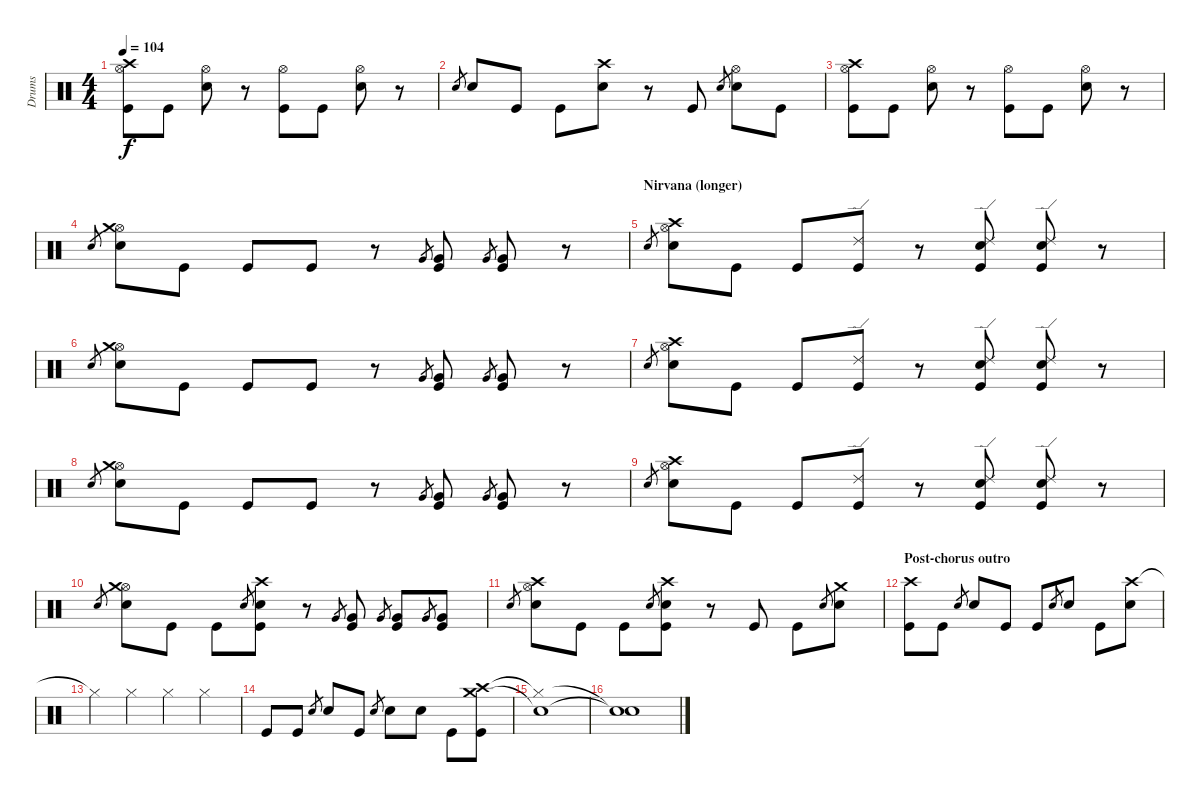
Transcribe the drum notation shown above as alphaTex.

\track ("Drums" "Drums") {instrument percussion}
\staff {score}
\articulation defaults
\ts (4 4)
\tempo 104
\clef neutral
\ks c
("Hi-Hat (open)" "Crash high (hit)" "Kick (hit)").8{dy f} "Kick (hit)".8 ("Hi-Hat (open)" "Snare (hit) 2").8 r.8 ("Hi-Hat (open)" "Kick (hit)").8 "Kick (hit)".8 ("Hi-Hat (open)" "Snare (hit) 2").8 r.8 |
"Snare (hit) 2".8{gr} "Snare (hit) 2".8 "Kick (hit)".8 "Kick (hit)".8 ("Crash high (hit)" "Snare (hit) 2").8 r.8 "Kick (hit)".8 "Snare (hit) 2".8{gr} ("Hi-Hat (open)" "Snare (hit) 2").8 "Kick (hit)".8 |
("Hi-Hat (open)" "Crash high (hit)" "Kick (hit)").8 "Kick (hit)".8 ("Hi-Hat (open)" "Snare (hit) 2").8 r.8 ("Hi-Hat (open)" "Kick (hit)").8 "Kick (hit)".8 ("Hi-Hat (open)" "Snare (hit) 2").8 r.8 |
"Snare (hit) 2".8{gr} ("Hi-Hat (open)" "Crash medium (hit)" "Snare (hit) 2").8 "Kick (hit)".8 "Kick (hit)".8 "Kick (hit)".8 r.8 "Very Low Tom (hit)".8{gr} ("Very Low Tom (hit)" "Kick (hit)").8 "Very Low Tom (hit)".8{gr} ("Very Low Tom (hit)" "Kick (hit)").8 r.8 |
\section ("" "Nirvana (longer)")
"Snare (hit) 2".8{gr} ("Hi-Hat (open)" "Crash high (hit)" "Snare (hit) 2").8 "Kick (hit)".8 "Kick (hit)".8 ("Ride (edge) 2" "Kick (hit)").8 r.8 ("Ride (edge) 2" "Snare (hit) 2" "Kick (hit)").8 ("Ride (edge) 2" "Snare (hit) 2" "Kick (hit)").8 r.8 |
"Snare (hit) 2".8{gr} ("Hi-Hat (open)" "Crash medium (hit)" "Snare (hit) 2").8 "Kick (hit)".8 "Kick (hit)".8 "Kick (hit)".8 r.8 "Very Low Tom (hit)".8{gr} ("Very Low Tom (hit)" "Kick (hit)").8 "Very Low Tom (hit)".8{gr} ("Very Low Tom (hit)" "Kick (hit)").8 r.8 |
"Snare (hit) 2".8{gr} ("Hi-Hat (open)" "Crash high (hit)" "Snare (hit) 2").8 "Kick (hit)".8 "Kick (hit)".8 ("Ride (edge) 2" "Kick (hit)").8 r.8 ("Ride (edge) 2" "Snare (hit) 2" "Kick (hit)").8 ("Ride (edge) 2" "Snare (hit) 2" "Kick (hit)").8 r.8 |
"Snare (hit) 2".8{gr} ("Hi-Hat (open)" "Crash medium (hit)" "Snare (hit) 2").8 "Kick (hit)".8 "Kick (hit)".8 "Kick (hit)".8 r.8 "Very Low Tom (hit)".8{gr} ("Very Low Tom (hit)" "Kick (hit)").8 "Very Low Tom (hit)".8{gr} ("Very Low Tom (hit)" "Kick (hit)").8 r.8 |
"Snare (hit) 2".8{gr} ("Hi-Hat (open)" "Crash high (hit)" "Snare (hit) 2").8 "Kick (hit)".8 "Kick (hit)".8 ("Ride (edge) 2" "Kick (hit)").8 r.8 ("Ride (edge) 2" "Snare (hit) 2" "Kick (hit)").8 ("Ride (edge) 2" "Snare (hit) 2" "Kick (hit)").8 r.8 |
"Snare (hit) 2".8{gr} ("Hi-Hat (open)" "Crash medium (hit)" "Snare (hit) 2").8 "Kick (hit)".8 "Kick (hit)".8 "Snare (hit) 2".8{gr} ("Crash high (hit)" "Snare (hit) 2" "Kick (hit)").8 r.8 "Very Low Tom (hit)".8{gr} ("Very Low Tom (hit)" "Kick (hit)").8 "Very Low Tom (hit)".8{gr} ("Very Low Tom (hit)" "Kick (hit)").8 "Very Low Tom (hit)".8{gr} ("Very Low Tom (hit)" "Kick (hit)").8 |
"Snare (hit) 2".8{gr} ("Hi-Hat (open)" "Crash high (hit)" "Snare (hit) 2").8 "Kick (hit)".8 "Kick (hit)".8 "Snare (hit) 2".8{gr} ("Crash high (hit)" "Snare (hit) 2" "Kick (hit)").8 r.8 "Kick (hit)".8 "Kick (hit)".8 "Snare (hit) 2".8{gr} ("Crash medium (hit)" "Snare (hit) 2").8 |
\section ("" "Post-chorus outro")
("Crash high (hit)" "Kick (hit)").8 "Kick (hit)".8 "Snare (hit) 2".8{gr} "Snare (hit) 2".8 "Kick (hit)".8 "Kick (hit)".8 "Snare (hit) 2".8{gr} "Snare (hit) 2".8 "Kick (hit)".8 ("Crash high (hit)" "Snare (hit) 2").8 |
"Hi-Hat (closed)"{t}.4 "Hi-Hat (closed)".4 "Hi-Hat (closed)".4 "Hi-Hat (closed)".4 |
"Kick (hit)".8 "Kick (hit)".8 "Snare (hit) 2".8{gr} "Snare (hit) 2".8 "Kick (hit)".8 "Snare (hit) 2".8{gr} "Snare (hit) 2".8 "Snare (hit) 2".8 "Kick (hit)".8 ("Crash high (hit)" "Crash medium (hit)" "Kick (hit)").8 |
("Hi-Hat (closed)"{t} "Snare (hit)"{t}).1 |
("Snare (hit)"{t} "Snare (hit)"{t}).1
